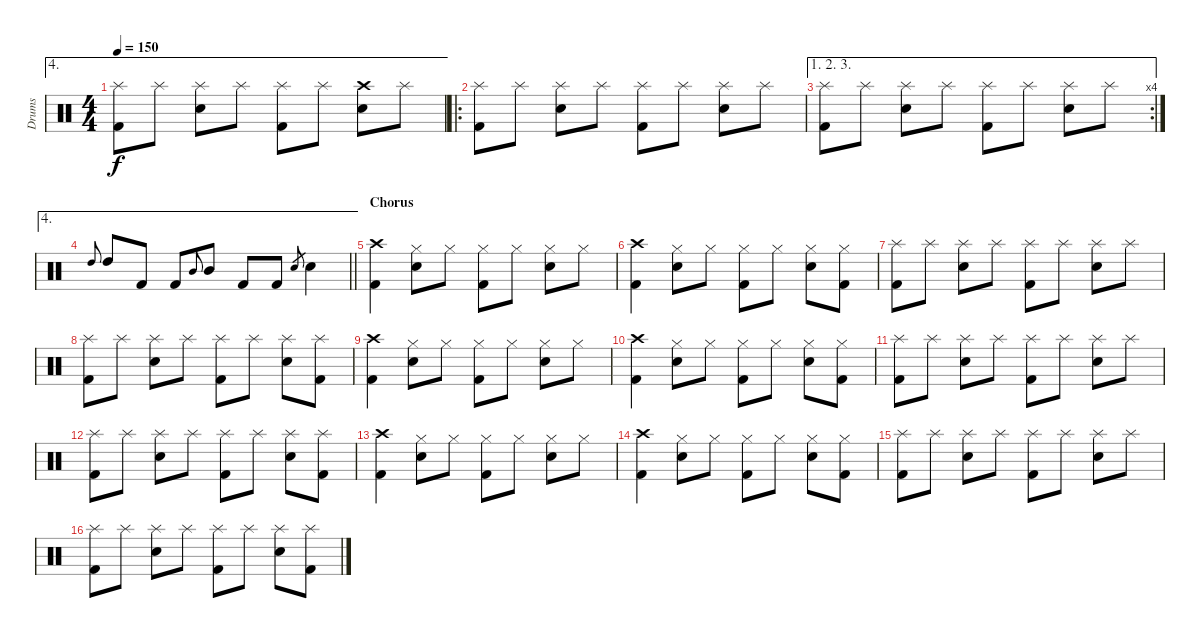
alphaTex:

\track ("Drums" "Drums") {instrument percussion}
\staff {score}
\articulation defaults
\ae 4
\ts (4 4)
\tempo 150
\clef neutral
\ks c
("Splash (hit)" "Kick (hit) 2").8{dy f} "Splash (hit)".8 ("Splash (hit)" "Snare (hit) 2").8 "Splash (hit)".8 ("Splash (hit)" "Kick (hit) 2").8 "Splash (hit)".8 ("Crash high (hit)" "Snare (hit) 2").8 "Splash (hit)".8 |
\ro
("Splash (hit)" "Kick (hit) 2").8 "Splash (hit)".8 ("Splash (hit)" "Snare (hit) 2").8 "Splash (hit)".8 ("Splash (hit)" "Kick (hit) 2").8 "Splash (hit)".8 ("Splash (hit)" "Snare (hit) 2").8 "Splash (hit)".8 |
\ae (1 2 3)
\rc 4
("Splash (hit)" "Kick (hit) 2").8 "Splash (hit)".8 ("Splash (hit)" "Snare (hit) 2").8 "Splash (hit)".8 ("Splash (hit)" "Kick (hit) 2").8 "Splash (hit)".8 ("Splash (hit)" "Snare (hit) 2").8 "Splash (hit)".8 |
\ae 4
\barLineRight lightlight "High Tom (hit)".8{gr onbeat} "High Tom (hit)".8 "Kick (hit) 2".8 "Kick (hit) 2".8 "Mid Tom (hit)".8{gr onbeat} "Mid Tom (hit)".8 "Kick (hit) 2".8 "Kick (hit) 2".8 "Snare (hit) 2".8{gr} "Snare (hit) 2".4
|
\section ("" "Chorus")
("Crash high (hit)" "Kick (hit) 2").4 ("Hi-Hat (closed)" "Snare (hit) 2").8 "Hi-Hat (closed)".8 ("Hi-Hat (closed)" "Kick (hit) 2").8 "Hi-Hat (closed)".8 ("Hi-Hat (closed)" "Snare (hit) 2").8 "Hi-Hat (closed)".8 |
("Crash high (hit)" "Kick (hit) 2").4 ("Hi-Hat (closed)" "Snare (hit) 2").8 "Hi-Hat (closed)".8 ("Hi-Hat (closed)" "Kick (hit) 2").8 "Hi-Hat (closed)".8 ("Hi-Hat (closed)" "Snare (hit) 2").8 ("Hi-Hat (closed)" "Kick (hit) 2").8 |
("Splash (hit)" "Kick (hit) 2").8 "Splash (hit)".8 ("Splash (hit)" "Snare (hit) 2").8 "Splash (hit)".8 ("Splash (hit)" "Kick (hit) 2").8 "Splash (hit)".8 ("Splash (hit)" "Snare (hit) 2").8 "Splash (hit)".8 |
("Splash (hit)" "Kick (hit) 2").8 "Splash (hit)".8 ("Splash (hit)" "Snare (hit) 2").8 "Splash (hit)".8 ("Splash (hit)" "Kick (hit) 2").8 "Splash (hit)".8 ("Splash (hit)" "Snare (hit) 2").8 ("Splash (hit)" "Kick (hit) 2").8 |
("Crash high (hit)" "Kick (hit) 2").4 ("Hi-Hat (closed)" "Snare (hit) 2").8 "Hi-Hat (closed)".8 ("Hi-Hat (closed)" "Kick (hit) 2").8 "Hi-Hat (closed)".8 ("Hi-Hat (closed)" "Snare (hit) 2").8 "Hi-Hat (closed)".8 |
("Crash high (hit)" "Kick (hit) 2").4 ("Hi-Hat (closed)" "Snare (hit) 2").8 "Hi-Hat (closed)".8 ("Hi-Hat (closed)" "Kick (hit) 2").8 "Hi-Hat (closed)".8 ("Hi-Hat (closed)" "Snare (hit) 2").8 ("Hi-Hat (closed)" "Kick (hit) 2").8 |
("Splash (hit)" "Kick (hit) 2").8 "Splash (hit)".8 ("Splash (hit)" "Snare (hit) 2").8 "Splash (hit)".8 ("Splash (hit)" "Kick (hit) 2").8 "Splash (hit)".8 ("Splash (hit)" "Snare (hit) 2").8 "Splash (hit)".8 |
("Splash (hit)" "Kick (hit) 2").8 "Splash (hit)".8 ("Splash (hit)" "Snare (hit) 2").8 "Splash (hit)".8 ("Splash (hit)" "Kick (hit) 2").8 "Splash (hit)".8 ("Splash (hit)" "Snare (hit) 2").8 ("Splash (hit)" "Kick (hit) 2").8 |
("Crash high (hit)" "Kick (hit) 2").4 ("Hi-Hat (closed)" "Snare (hit) 2").8 "Hi-Hat (closed)".8 ("Hi-Hat (closed)" "Kick (hit) 2").8 "Hi-Hat (closed)".8 ("Hi-Hat (closed)" "Snare (hit) 2").8 "Hi-Hat (closed)".8 |
("Crash high (hit)" "Kick (hit) 2").4 ("Hi-Hat (closed)" "Snare (hit) 2").8 "Hi-Hat (closed)".8 ("Hi-Hat (closed)" "Kick (hit) 2").8 "Hi-Hat (closed)".8 ("Hi-Hat (closed)" "Snare (hit) 2").8 ("Hi-Hat (closed)" "Kick (hit) 2").8 |
("Splash (hit)" "Kick (hit) 2").8 "Splash (hit)".8 ("Splash (hit)" "Snare (hit) 2").8 "Splash (hit)".8 ("Splash (hit)" "Kick (hit) 2").8 "Splash (hit)".8 ("Splash (hit)" "Snare (hit) 2").8 "Splash (hit)".8 |
("Splash (hit)" "Kick (hit) 2").8 "Splash (hit)".8 ("Splash (hit)" "Snare (hit) 2").8 "Splash (hit)".8 ("Splash (hit)" "Kick (hit) 2").8 "Splash (hit)".8 ("Splash (hit)" "Snare (hit) 2").8 ("Splash (hit)" "Kick (hit) 2").8
